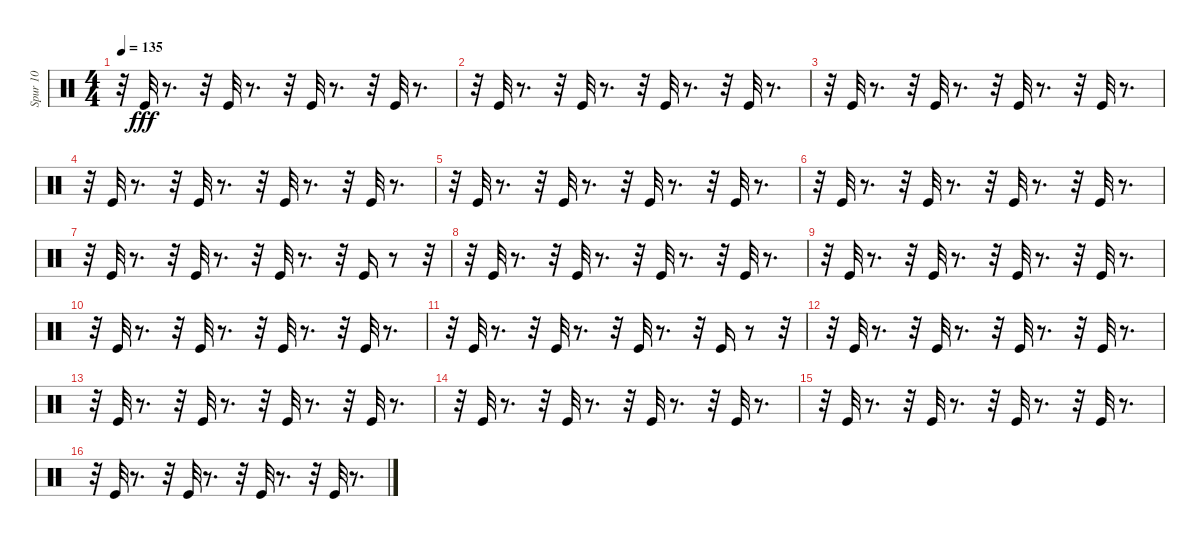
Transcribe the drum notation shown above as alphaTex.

\track ("Spur 10" "Spur 10") {instrument percussion}
\staff {score}
\articulation defaults
\ts (4 4)
\tempo 135
\clef neutral
\ks c
r.32{dy fff} "Kick (hit)".32 r.8{d} r.32 "Kick (hit)".32 r.8{d} r.32 "Kick (hit)".32 r.8{d} r.32 "Kick (hit)".32 r.8{d} |
r.32 "Kick (hit)".32 r.8{d} r.32 "Kick (hit)".32 r.8{d} r.32 "Kick (hit)".32 r.8{d} r.32 "Kick (hit)".32 r.8{d} |
r.32 "Kick (hit)".32 r.8{d} r.32 "Kick (hit)".32 r.8{d} r.32 "Kick (hit)".32 r.8{d} r.32 "Kick (hit)".32 r.8{d} |
r.32 "Kick (hit)".32 r.8{d} r.32 "Kick (hit)".32 r.8{d} r.32 "Kick (hit)".32 r.8{d} r.32 "Kick (hit)".32 r.8{d} |
r.32 "Kick (hit)".32 r.8{d} r.32 "Kick (hit)".32 r.8{d} r.32 "Kick (hit)".32 r.8{d} r.32 "Kick (hit)".32 r.8{d} |
r.32 "Kick (hit)".32 r.8{d} r.32 "Kick (hit)".32 r.8{d} r.32 "Kick (hit)".32 r.8{d} r.32 "Kick (hit)".32 r.8{d} |
r.32 "Kick (hit)".32 r.8{d} r.32 "Kick (hit)".32 r.8{d} r.32 "Kick (hit)".32 r.8{d} r.32 "Kick (hit)".16 r.8 r.32 |
r.32 "Kick (hit)".32 r.8{d} r.32 "Kick (hit)".32 r.8{d} r.32 "Kick (hit)".32 r.8{d} r.32 "Kick (hit)".32 r.8{d} |
r.32 "Kick (hit)".32 r.8{d} r.32 "Kick (hit)".32 r.8{d} r.32 "Kick (hit)".32 r.8{d} r.32 "Kick (hit)".32 r.8{d} |
r.32 "Kick (hit)".32 r.8{d} r.32 "Kick (hit)".32 r.8{d} r.32 "Kick (hit)".32 r.8{d} r.32 "Kick (hit)".32 r.8{d} |
r.32 "Kick (hit)".32 r.8{d} r.32 "Kick (hit)".32 r.8{d} r.32 "Kick (hit)".32 r.8{d} r.32 "Kick (hit)".16 r.8 r.32 |
r.32 "Kick (hit)".32 r.8{d} r.32 "Kick (hit)".32 r.8{d} r.32 "Kick (hit)".32 r.8{d} r.32 "Kick (hit)".32 r.8{d} |
r.32 "Kick (hit)".32 r.8{d} r.32 "Kick (hit)".32 r.8{d} r.32 "Kick (hit)".32 r.8{d} r.32 "Kick (hit)".32 r.8{d} |
r.32 "Kick (hit)".32 r.8{d} r.32 "Kick (hit)".32 r.8{d} r.32 "Kick (hit)".32 r.8{d} r.32 "Kick (hit)".32 r.8{d} |
r.32 "Kick (hit)".32 r.8{d} r.32 "Kick (hit)".32 r.8{d} r.32 "Kick (hit)".32 r.8{d} r.32 "Kick (hit)".32 r.8{d} |
r.32 "Kick (hit)".32 r.8{d} r.32 "Kick (hit)".32 r.8{d} r.32 "Kick (hit)".32 r.8{d} r.32 "Kick (hit)".32 r.8{d}
